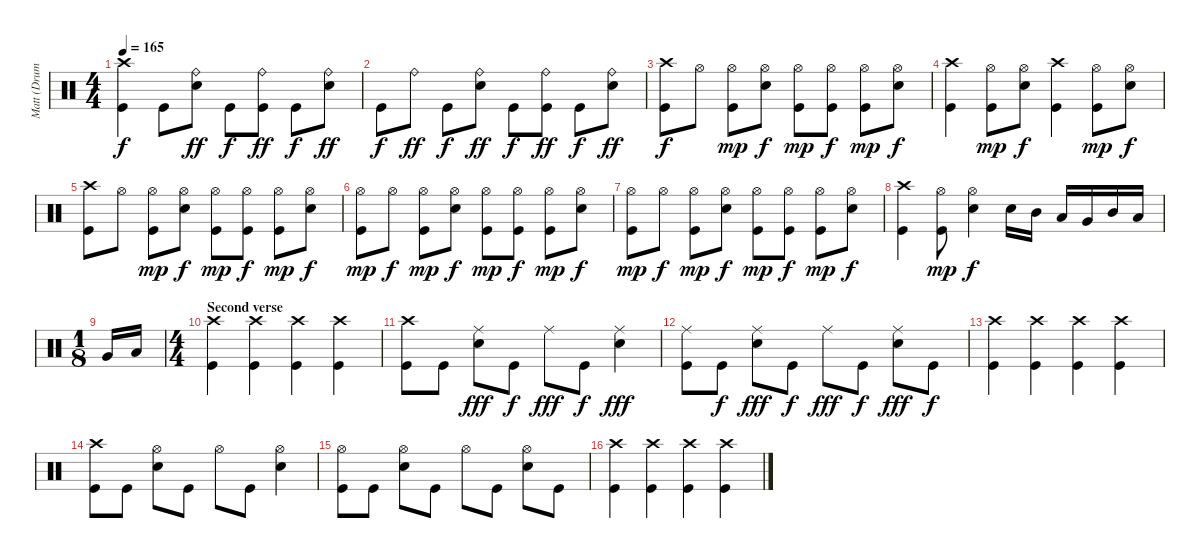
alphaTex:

\track ("Matt (Drums)" "Matt (Drum") {instrument percussion}
\staff {score}
\articulation defaults
\ts (4 4)
\tempo 165
\clef neutral
\ks c
("Crash high (hit)" "Kick (hit)").4{dy f} "Kick (hit)".8 ("Ride (bell)" "Electric Snare (hit)").8{dy ff} "Kick (hit)".8{dy f} ("Ride (bell)" "Kick (hit)").8{dy ff} "Kick (hit)".8{dy f} ("Ride (bell)" "Electric Snare (hit)").8{dy ff} |
"Kick (hit)".8{dy f} "Ride (bell)".8{dy ff} "Kick (hit)".8{dy f} ("Ride (bell)" "Electric Snare (hit)").8{dy ff} "Kick (hit)".8{dy f} ("Ride (bell)" "Kick (hit)").8{dy ff} "Kick (hit)".8{dy f} ("Ride (bell)" "Electric Snare (hit)").8{dy ff} |
("Crash high (hit)" "Kick (hit)").8{dy f} "Hi-Hat (open)".8 ("Hi-Hat (open)" "Kick (hit)").8{dy mp} ("Hi-Hat (open)" "Electric Snare (hit)").8{dy f} ("Hi-Hat (open)" "Kick (hit)").8{dy mp} ("Hi-Hat (open)" "Kick (hit)").8{dy f} ("Hi-Hat (open)" "Kick (hit)").8{dy mp} ("Hi-Hat (open)" "Electric Snare (hit)").8{dy f} |
("Crash high (hit)" "Kick (hit)").4 ("Hi-Hat (open)" "Kick (hit)").8{dy mp} ("Hi-Hat (open)" "Electric Snare (hit)").8{dy f} ("Crash high (hit)" "Kick (hit)").4 ("Hi-Hat (open)" "Kick (hit)").8{dy mp} ("Hi-Hat (open)" "Electric Snare (hit)").8{dy f} |
("Crash high (hit)" "Kick (hit)").8 "Hi-Hat (open)".8 ("Hi-Hat (open)" "Kick (hit)").8{dy mp} ("Hi-Hat (open)" "Electric Snare (hit)").8{dy f} ("Hi-Hat (open)" "Kick (hit)").8{dy mp} ("Hi-Hat (open)" "Kick (hit)").8{dy f} ("Hi-Hat (open)" "Kick (hit)").8{dy mp} ("Hi-Hat (open)" "Electric Snare (hit)").8{dy f} |
("Hi-Hat (open)" "Kick (hit)").8{dy mp} "Hi-Hat (open)".8{dy f} ("Hi-Hat (open)" "Kick (hit)").8{dy mp} ("Hi-Hat (open)" "Electric Snare (hit)").8{dy f} ("Hi-Hat (open)" "Kick (hit)").8{dy mp} ("Hi-Hat (open)" "Kick (hit)").8{dy f} ("Hi-Hat (open)" "Kick (hit)").8{dy mp} ("Hi-Hat (open)" "Electric Snare (hit)").8{dy f} |
("Hi-Hat (open)" "Kick (hit)").8{dy mp} "Hi-Hat (open)".8{dy f} ("Hi-Hat (open)" "Kick (hit)").8{dy mp} ("Hi-Hat (open)" "Electric Snare (hit)").8{dy f} ("Hi-Hat (open)" "Kick (hit)").8{dy mp} ("Hi-Hat (open)" "Kick (hit)").8{dy f} ("Hi-Hat (open)" "Kick (hit)").8{dy mp} ("Hi-Hat (open)" "Electric Snare (hit)").8{dy f} |
("Crash high (hit)" "Kick (hit)").4 ("Hi-Hat (open)" "Kick (hit)").8{dy mp} ("Hi-Hat (open)" "Electric Snare (hit)").4{dy f} "Electric Snare (hit)".16 "Mid Tom (hit)".16 "Low Tom (hit)".16 "Very Low Tom (hit)".16 "Mid Tom (hit)".16 "Low Tom (hit)".16 |
\ts (1 8)
"Very Low Tom (hit)".16 "Low Floor Tom (hit)".16 |
\ts (4 4)
\section ("" "Second verse")
("Crash high (hit)" "Kick (hit)").4 ("Crash high (hit)" "Kick (hit)").4 ("Crash high (hit)" "Kick (hit)").4 ("Crash high (hit)" "Kick (hit)").4 |
("Crash high (hit)" "Kick (hit)").8 "Kick (hit)".8 ("Ride (middle)" "Electric Snare (hit)").8{dy fff} "Kick (hit)".8{dy f} "Ride (middle)".8{dy fff} "Kick (hit)".8{dy f} ("Ride (middle)" "Electric Snare (hit)").4{dy fff} |
("Ride (middle)" "Kick (hit)").8 "Kick (hit)".8{dy f} ("Ride (middle)" "Electric Snare (hit)").8{dy fff} "Kick (hit)".8{dy f} "Ride (middle)".8{dy fff} "Kick (hit)".8{dy f} ("Ride (middle)" "Electric Snare (hit)").8{dy fff} "Kick (hit)".8{dy f} |
("Crash high (hit)" "Kick (hit)").4 ("Crash high (hit)" "Kick (hit)").4 ("Crash high (hit)" "Kick (hit)").4 ("Crash high (hit)" "Kick (hit)").4 |
("Crash high (hit)" "Kick (hit)").8 "Kick (hit)".8 ("Hi-Hat (open)" "Electric Snare (hit)").8 "Kick (hit)".8 "Hi-Hat (open)".8 "Kick (hit)".8 ("Hi-Hat (open)" "Electric Snare (hit)").4 |
("Hi-Hat (open)" "Kick (hit)").8 "Kick (hit)".8 ("Hi-Hat (open)" "Electric Snare (hit)").8 "Kick (hit)".8 "Hi-Hat (open)".8 "Kick (hit)".8 ("Hi-Hat (open)" "Electric Snare (hit)").8 "Kick (hit)".8 |
("Crash high (hit)" "Kick (hit)").4 ("Crash high (hit)" "Kick (hit)").4 ("Crash high (hit)" "Kick (hit)").4 ("Crash high (hit)" "Kick (hit)").4
